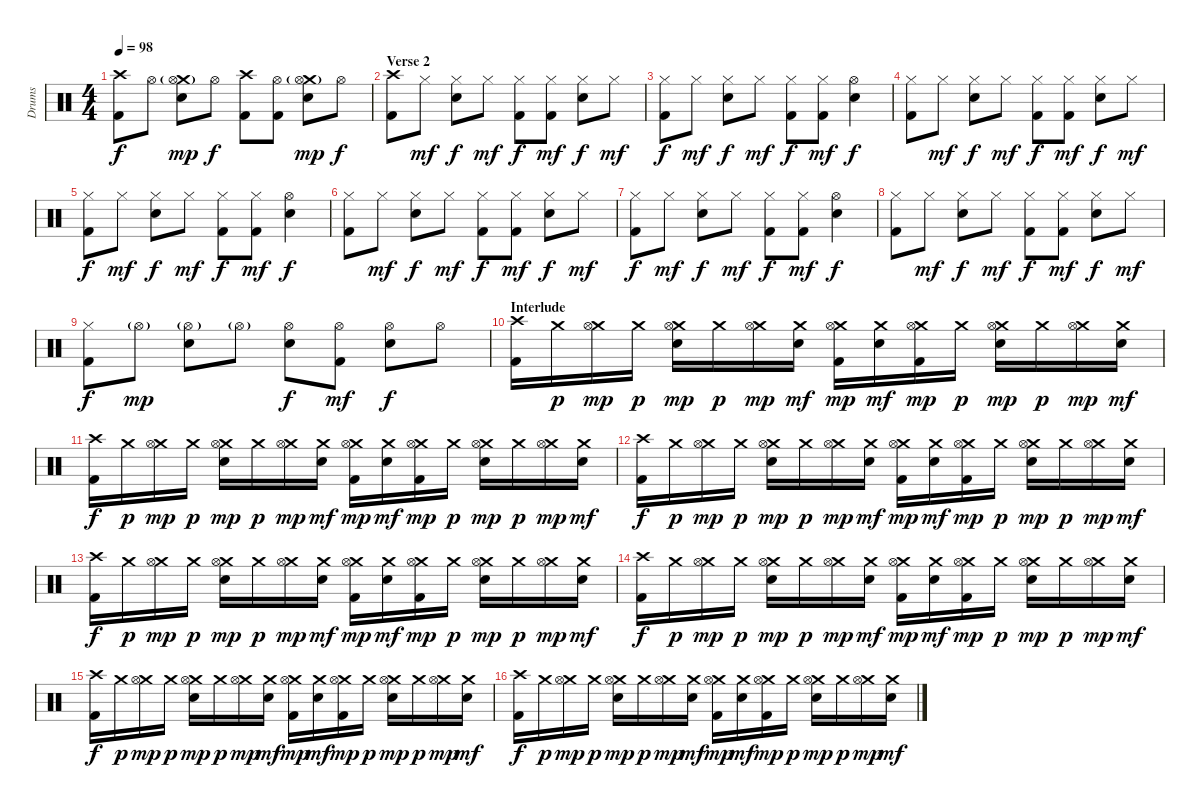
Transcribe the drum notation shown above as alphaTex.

\track ("Drums" "Drums") {instrument percussion}
\staff {score}
\articulation defaults
\ts (4 4)
\tempo 98
\clef neutral
\ks c
("Crash high (hit)" "Kick (hit) 2").8{dy f} "Hi-Hat (open)".8 ("Crash medium (hit)"{g} "Hi-Hat (open)" "Snare (hit) 2").8{dy mp} "Hi-Hat (open)".8{dy f} ("Crash high (hit)" "Kick (hit) 2").8 ("Hi-Hat (open)" "Kick (hit) 2").8 ("Crash medium (hit)"{g} "Hi-Hat (open)" "Snare (hit) 2").8{dy mp} "Hi-Hat (open)".8{dy f} |
\section ("" "Verse 2")
("Crash high (hit)" "Kick (hit) 2").8 "Hi-Hat (closed)".8{dy mf} ("Hi-Hat (closed)" "Snare (hit) 2").8{dy f} "Hi-Hat (closed)".8{dy mf} ("Hi-Hat (closed)" "Kick (hit) 2").8{dy f} ("Hi-Hat (closed)" "Kick (hit) 2").8{dy mf} ("Hi-Hat (closed)" "Snare (hit) 2").8{dy f} "Hi-Hat (closed)".8{dy mf} |
("Hi-Hat (closed)" "Kick (hit) 2").8{dy f} "Hi-Hat (closed)".8{dy mf} ("Hi-Hat (closed)" "Snare (hit) 2").8{dy f} "Hi-Hat (closed)".8{dy mf} ("Hi-Hat (closed)" "Kick (hit) 2").8{dy f} ("Hi-Hat (closed)" "Kick (hit) 2").8{dy mf} ("Hi-Hat (open)" "Snare (hit) 2").4{dy f} |
("Hi-Hat (closed)" "Kick (hit) 2").8 "Hi-Hat (closed)".8{dy mf} ("Hi-Hat (closed)" "Snare (hit) 2").8{dy f} "Hi-Hat (closed)".8{dy mf} ("Hi-Hat (closed)" "Kick (hit) 2").8{dy f} ("Hi-Hat (closed)" "Kick (hit) 2").8{dy mf} ("Hi-Hat (closed)" "Snare (hit) 2").8{dy f} "Hi-Hat (closed)".8{dy mf} |
("Hi-Hat (closed)" "Kick (hit) 2").8{dy f} "Hi-Hat (closed)".8{dy mf} ("Hi-Hat (closed)" "Snare (hit) 2").8{dy f} "Hi-Hat (closed)".8{dy mf} ("Hi-Hat (closed)" "Kick (hit) 2").8{dy f} ("Hi-Hat (closed)" "Kick (hit) 2").8{dy mf} ("Hi-Hat (open)" "Snare (hit) 2").4{dy f} |
("Hi-Hat (closed)" "Kick (hit) 2").8 "Hi-Hat (closed)".8{dy mf} ("Hi-Hat (closed)" "Snare (hit) 2").8{dy f} "Hi-Hat (closed)".8{dy mf} ("Hi-Hat (closed)" "Kick (hit) 2").8{dy f} ("Hi-Hat (closed)" "Kick (hit) 2").8{dy mf} ("Hi-Hat (closed)" "Snare (hit) 2").8{dy f} "Hi-Hat (closed)".8{dy mf} |
("Hi-Hat (closed)" "Kick (hit) 2").8{dy f} "Hi-Hat (closed)".8{dy mf} ("Hi-Hat (closed)" "Snare (hit) 2").8{dy f} "Hi-Hat (closed)".8{dy mf} ("Hi-Hat (closed)" "Kick (hit) 2").8{dy f} ("Hi-Hat (closed)" "Kick (hit) 2").8{dy mf} ("Hi-Hat (open)" "Snare (hit) 2").4{dy f} |
("Hi-Hat (closed)" "Kick (hit) 2").8 "Hi-Hat (closed)".8{dy mf} ("Hi-Hat (closed)" "Snare (hit) 2").8{dy f} "Hi-Hat (closed)".8{dy mf} ("Hi-Hat (closed)" "Kick (hit) 2").8{dy f} ("Hi-Hat (closed)" "Kick (hit) 2").8{dy mf} ("Hi-Hat (closed)" "Snare (hit) 2").8{dy f} "Hi-Hat (closed)".8{dy mf} |
("Hi-Hat (closed)" "Kick (hit) 2").8{dy f} "Hi-Hat (open)"{g}.8{dy mp} ("Hi-Hat (open)"{g} "Snare (hit) 2").8 "Hi-Hat (open)"{g}.8 ("Hi-Hat (open)" "Snare (hit) 2").8{dy f} ("Hi-Hat (open)" "Kick (hit) 2").8{dy mf} ("Hi-Hat (open)" "Snare (hit) 2").8{dy f} "Hi-Hat (open)".8 |
\section ("" "Interlude")
("Crash high (hit)" "Kick (hit) 2").16 "Crash medium (hit)".16{dy p} ("Crash medium (hit)" "Hi-Hat (open)").16{dy mp} "Crash medium (hit)".16{dy p} ("Crash medium (hit)" "Hi-Hat (open)" "Snare (hit) 2").16{dy mp} "Crash medium (hit)".16{dy p} ("Crash medium (hit)" "Hi-Hat (open)").16{dy mp} ("Crash medium (hit)" "Snare (hit) 2").16{dy mf} ("Crash medium (hit)" "Hi-Hat (open)" "Kick (hit) 2").16{dy mp} ("Crash medium (hit)" "Snare (hit) 2").16{dy mf} ("Crash medium (hit)" "Hi-Hat (open)" "Kick (hit) 2").16{dy mp} "Crash medium (hit)".16{dy p} ("Crash medium (hit)" "Hi-Hat (open)" "Snare (hit) 2").16{dy mp} "Crash medium (hit)".16{dy p} ("Crash medium (hit)" "Hi-Hat (open)").16{dy mp} ("Crash medium (hit)" "Snare (hit) 2").16{dy mf} |
("Crash high (hit)" "Kick (hit) 2").16{dy f} "Crash medium (hit)".16{dy p} ("Crash medium (hit)" "Hi-Hat (open)").16{dy mp} "Crash medium (hit)".16{dy p} ("Crash medium (hit)" "Hi-Hat (open)" "Snare (hit) 2").16{dy mp} "Crash medium (hit)".16{dy p} ("Crash medium (hit)" "Hi-Hat (open)").16{dy mp} ("Crash medium (hit)" "Snare (hit) 2").16{dy mf} ("Crash medium (hit)" "Hi-Hat (open)" "Kick (hit) 2").16{dy mp} ("Crash medium (hit)" "Snare (hit) 2").16{dy mf} ("Crash medium (hit)" "Hi-Hat (open)" "Kick (hit) 2").16{dy mp} "Crash medium (hit)".16{dy p} ("Crash medium (hit)" "Hi-Hat (open)" "Snare (hit) 2").16{dy mp} "Crash medium (hit)".16{dy p} ("Crash medium (hit)" "Hi-Hat (open)").16{dy mp} ("Crash medium (hit)" "Snare (hit) 2").16{dy mf} |
("Crash high (hit)" "Kick (hit) 2").16{dy f} "Crash medium (hit)".16{dy p} ("Crash medium (hit)" "Hi-Hat (open)").16{dy mp} "Crash medium (hit)".16{dy p} ("Crash medium (hit)" "Hi-Hat (open)" "Snare (hit) 2").16{dy mp} "Crash medium (hit)".16{dy p} ("Crash medium (hit)" "Hi-Hat (open)").16{dy mp} ("Crash medium (hit)" "Snare (hit) 2").16{dy mf} ("Crash medium (hit)" "Hi-Hat (open)" "Kick (hit) 2").16{dy mp} ("Crash medium (hit)" "Snare (hit) 2").16{dy mf} ("Crash medium (hit)" "Hi-Hat (open)" "Kick (hit) 2").16{dy mp} "Crash medium (hit)".16{dy p} ("Crash medium (hit)" "Hi-Hat (open)" "Snare (hit) 2").16{dy mp} "Crash medium (hit)".16{dy p} ("Crash medium (hit)" "Hi-Hat (open)").16{dy mp} ("Crash medium (hit)" "Snare (hit) 2").16{dy mf} |
("Crash high (hit)" "Kick (hit) 2").16{dy f} "Crash medium (hit)".16{dy p} ("Crash medium (hit)" "Hi-Hat (open)").16{dy mp} "Crash medium (hit)".16{dy p} ("Crash medium (hit)" "Hi-Hat (open)" "Snare (hit) 2").16{dy mp} "Crash medium (hit)".16{dy p} ("Crash medium (hit)" "Hi-Hat (open)").16{dy mp} ("Crash medium (hit)" "Snare (hit) 2").16{dy mf} ("Crash medium (hit)" "Hi-Hat (open)" "Kick (hit) 2").16{dy mp} ("Crash medium (hit)" "Snare (hit) 2").16{dy mf} ("Crash medium (hit)" "Hi-Hat (open)" "Kick (hit) 2").16{dy mp} "Crash medium (hit)".16{dy p} ("Crash medium (hit)" "Hi-Hat (open)" "Snare (hit) 2").16{dy mp} "Crash medium (hit)".16{dy p} ("Crash medium (hit)" "Hi-Hat (open)").16{dy mp} ("Crash medium (hit)" "Snare (hit) 2").16{dy mf} |
("Crash high (hit)" "Kick (hit) 2").16{dy f} "Crash medium (hit)".16{dy p} ("Crash medium (hit)" "Hi-Hat (open)").16{dy mp} "Crash medium (hit)".16{dy p} ("Crash medium (hit)" "Hi-Hat (open)" "Snare (hit) 2").16{dy mp} "Crash medium (hit)".16{dy p} ("Crash medium (hit)" "Hi-Hat (open)").16{dy mp} ("Crash medium (hit)" "Snare (hit) 2").16{dy mf} ("Crash medium (hit)" "Hi-Hat (open)" "Kick (hit) 2").16{dy mp} ("Crash medium (hit)" "Snare (hit) 2").16{dy mf} ("Crash medium (hit)" "Hi-Hat (open)" "Kick (hit) 2").16{dy mp} "Crash medium (hit)".16{dy p} ("Crash medium (hit)" "Hi-Hat (open)" "Snare (hit) 2").16{dy mp} "Crash medium (hit)".16{dy p} ("Crash medium (hit)" "Hi-Hat (open)").16{dy mp} ("Crash medium (hit)" "Snare (hit) 2").16{dy mf} |
("Crash high (hit)" "Kick (hit) 2").16{dy f} "Crash medium (hit)".16{dy p} ("Crash medium (hit)" "Hi-Hat (open)").16{dy mp} "Crash medium (hit)".16{dy p} ("Crash medium (hit)" "Hi-Hat (open)" "Snare (hit) 2").16{dy mp} "Crash medium (hit)".16{dy p} ("Crash medium (hit)" "Hi-Hat (open)").16{dy mp} ("Crash medium (hit)" "Snare (hit) 2").16{dy mf} ("Crash medium (hit)" "Hi-Hat (open)" "Kick (hit) 2").16{dy mp} ("Crash medium (hit)" "Snare (hit) 2").16{dy mf} ("Crash medium (hit)" "Hi-Hat (open)" "Kick (hit) 2").16{dy mp} "Crash medium (hit)".16{dy p} ("Crash medium (hit)" "Hi-Hat (open)" "Snare (hit) 2").16{dy mp} "Crash medium (hit)".16{dy p} ("Crash medium (hit)" "Hi-Hat (open)").16{dy mp} ("Crash medium (hit)" "Snare (hit) 2").16{dy mf} |
("Crash high (hit)" "Kick (hit) 2").16{dy f} "Crash medium (hit)".16{dy p} ("Crash medium (hit)" "Hi-Hat (open)").16{dy mp} "Crash medium (hit)".16{dy p} ("Crash medium (hit)" "Hi-Hat (open)" "Snare (hit) 2").16{dy mp} "Crash medium (hit)".16{dy p} ("Crash medium (hit)" "Hi-Hat (open)").16{dy mp} ("Crash medium (hit)" "Snare (hit) 2").16{dy mf} ("Crash medium (hit)" "Hi-Hat (open)" "Kick (hit) 2").16{dy mp} ("Crash medium (hit)" "Snare (hit) 2").16{dy mf} ("Crash medium (hit)" "Hi-Hat (open)" "Kick (hit) 2").16{dy mp} "Crash medium (hit)".16{dy p} ("Crash medium (hit)" "Hi-Hat (open)" "Snare (hit) 2").16{dy mp} "Crash medium (hit)".16{dy p} ("Crash medium (hit)" "Hi-Hat (open)").16{dy mp} ("Crash medium (hit)" "Snare (hit) 2").16{dy mf}
